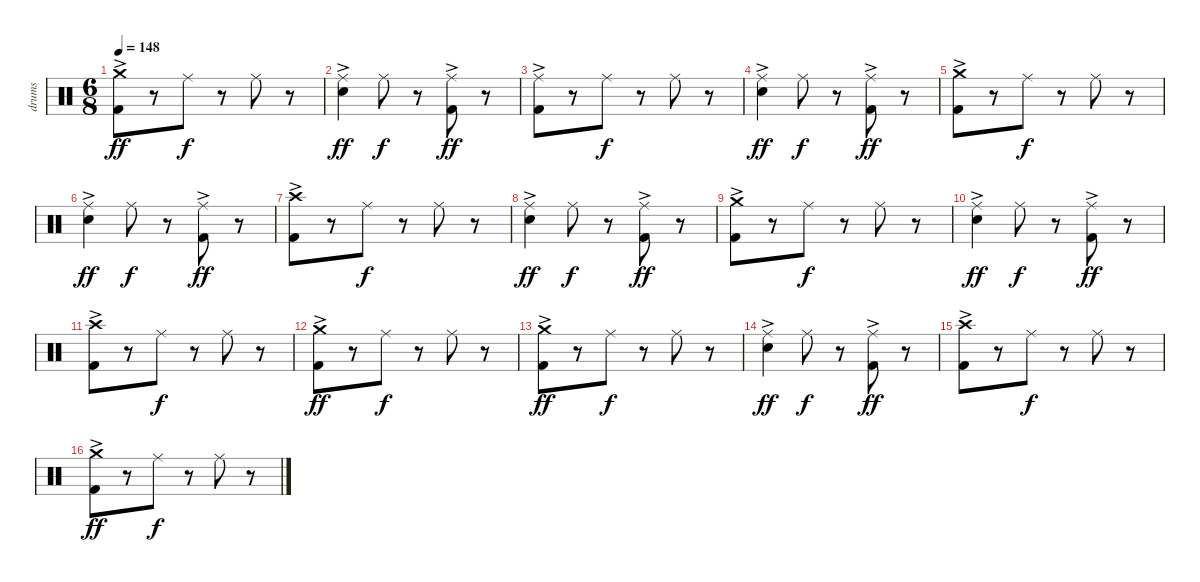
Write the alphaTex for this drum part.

\track ("drums" "drums") {instrument percussion}
\staff {score}
\articulation defaults
\ts (6 8)
\tempo 148
\clef neutral
\ks c
("Crash medium (hit)" "Kick (hit) 2"{ac}).8{dy ff} r.8 "Ride (middle)".8{dy f} r.8 "Ride (middle)".8 r.8 |
("Ride (middle)" "Electric Snare (hit)"{ac}).4{dy ff} "Ride (middle)".8{dy f} r.8 ("Ride (middle)" "Kick (hit) 2"{ac}).8{dy ff} r.8 |
("Ride (middle)" "Kick (hit) 2"{ac}).8 r.8 "Ride (middle)".8{dy f} r.8 "Ride (middle)".8 r.8 |
("Ride (middle)" "Electric Snare (hit)"{ac}).4{dy ff} "Ride (middle)".8{dy f} r.8 ("Ride (middle)" "Kick (hit) 2"{ac}).8{dy ff} r.8 |
("Crash medium (hit)" "Kick (hit) 2"{ac}).8 r.8 "Ride (middle)".8{dy f} r.8 "Ride (middle)".8 r.8 |
("Ride (middle)" "Electric Snare (hit)"{ac}).4{dy ff} "Ride (middle)".8{dy f} r.8 ("Ride (middle)" "Kick (hit) 2"{ac}).8{dy ff} r.8 |
("Crash high (hit)" "Kick (hit) 2"{ac}).8 r.8 "Ride (middle)".8{dy f} r.8 "Ride (middle)".8 r.8 |
("Ride (middle)" "Electric Snare (hit)"{ac}).4{dy ff} "Ride (middle)".8{dy f} r.8 ("Ride (middle)" "Kick (hit) 2"{ac}).8{dy ff} r.8 |
("Crash medium (hit)" "Kick (hit) 2"{ac}).8 r.8 "Ride (middle)".8{dy f} r.8 "Ride (middle)".8 r.8 |
("Ride (middle)" "Electric Snare (hit)"{ac}).4{dy ff} "Ride (middle)".8{dy f} r.8 ("Ride (middle)" "Kick (hit) 2"{ac}).8{dy ff} r.8 |
("Crash high (hit)" "Kick (hit) 2"{ac}).8 r.8 "Ride (middle)".8{dy f} r.8 "Ride (middle)".8 r.8 |
("Crash medium (hit)" "Kick (hit) 2"{ac}).8{dy ff} r.8 "Ride (middle)".8{dy f} r.8 "Ride (middle)".8 r.8 |
("Crash medium (hit)" "Kick (hit) 2"{ac}).8{dy ff} r.8 "Ride (middle)".8{dy f} r.8 "Ride (middle)".8 r.8 |
("Ride (middle)" "Electric Snare (hit)"{ac}).4{dy ff} "Ride (middle)".8{dy f} r.8 ("Ride (middle)" "Kick (hit) 2"{ac}).8{dy ff} r.8 |
("Crash high (hit)" "Kick (hit) 2"{ac}).8 r.8 "Ride (middle)".8{dy f} r.8 "Ride (middle)".8 r.8 |
("Crash medium (hit)" "Kick (hit) 2"{ac}).8{dy ff} r.8 "Ride (middle)".8{dy f} r.8 "Ride (middle)".8 r.8
